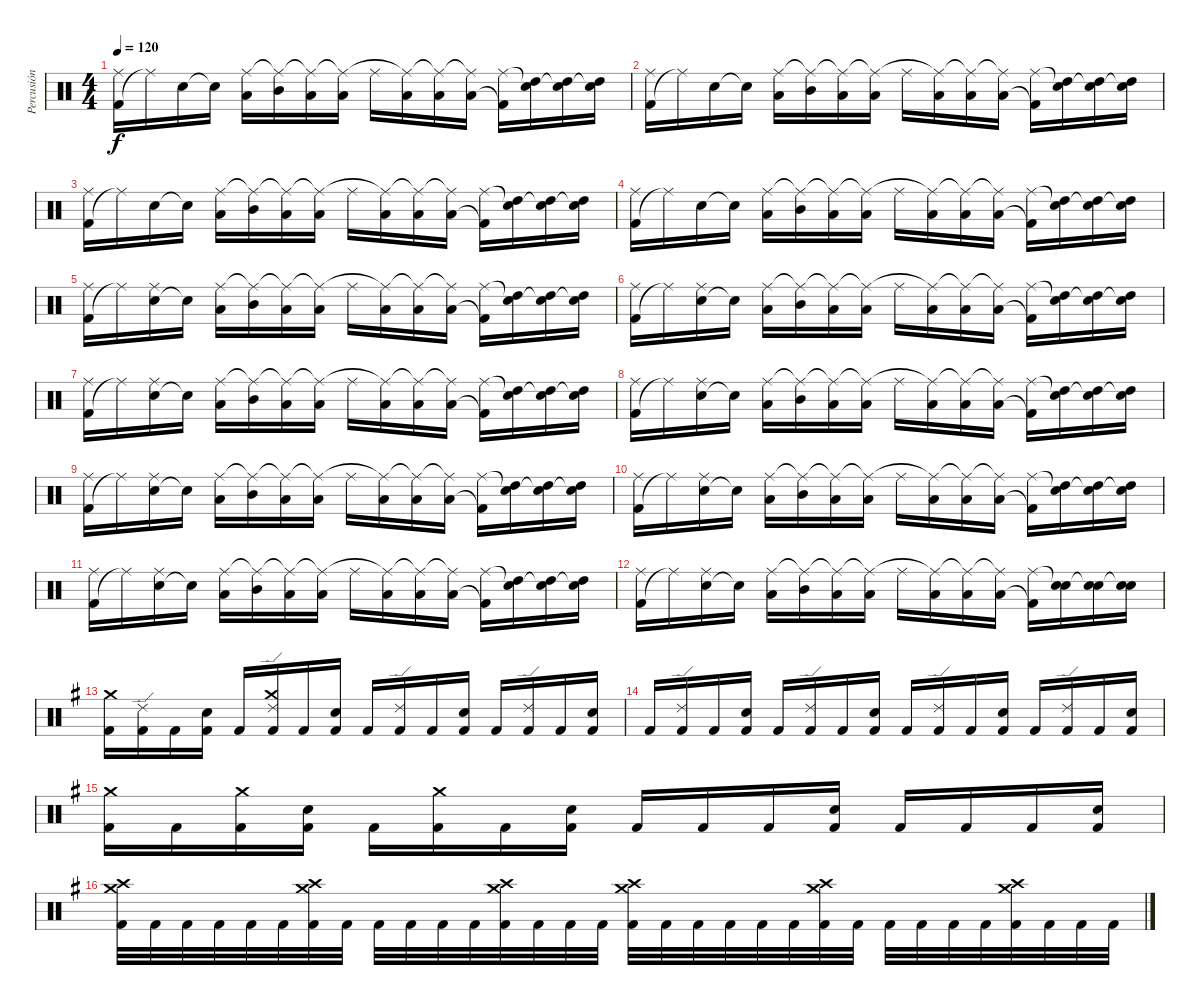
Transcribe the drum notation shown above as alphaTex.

\track ("Percusión" "Percusión") {instrument percussion}
\staff {score}
\articulation defaults
\ts (4 4)
\tempo 120
\clef neutral
\ks c
("Kick (hit) 2" "Ride (middle)").16{dy f} "Ride (middle)"{t}.16 "Snare (hit) 2".16 "Snare (hit)"{t}.16 ("Low Tom (hit)" "Ride (middle)").16 ("Mid Tom (hit)" "Ride (middle)"{t}).16 ("Low Tom (hit)" "Ride (middle)"{t}).16 ("Low Tom (hit)" "Ride (middle)"{t}).16 "Ride (middle)".16 ("Low Tom (hit)" "Ride (middle)"{t}).16 ("Low Tom (hit)" "Ride (middle)"{t}).16 ("Low Tom (hit)" "Ride (middle)"{t}).16 ("Kick (hit) 2"{t} "Ride (middle)").16 ("High Tom (hit)" "Snare (hit)"{t}).16 ("High Tom (hit)" "Snare (hit)"{t}).16 ("High Tom (hit)" "Snare (hit)"{t}).16 |
("Kick (hit) 2" "Ride (middle)").16 "Ride (middle)"{t}.16 "Snare (hit) 2".16 "Snare (hit)"{t}.16 ("Low Tom (hit)" "Ride (middle)").16 ("Mid Tom (hit)" "Ride (middle)"{t}).16 ("Low Tom (hit)" "Ride (middle)"{t}).16 ("Low Tom (hit)" "Ride (middle)"{t}).16 "Ride (middle)".16 ("Low Tom (hit)" "Ride (middle)"{t}).16 ("Low Tom (hit)" "Ride (middle)"{t}).16 ("Low Tom (hit)" "Ride (middle)"{t}).16 ("Kick (hit) 2"{t} "Ride (middle)").16 ("High Tom (hit)" "Snare (hit)"{t}).16 ("High Tom (hit)" "Snare (hit)"{t}).16 ("High Tom (hit)" "Snare (hit)"{t}).16 |
("Kick (hit) 2" "Ride (middle)").16 "Ride (middle)"{t}.16 "Snare (hit) 2".16 "Snare (hit)"{t}.16 ("Low Tom (hit)" "Ride (middle)").16 ("Mid Tom (hit)" "Ride (middle)"{t}).16 ("Low Tom (hit)" "Ride (middle)"{t}).16 ("Low Tom (hit)" "Ride (middle)"{t}).16 "Ride (middle)".16 ("Low Tom (hit)" "Ride (middle)"{t}).16 ("Low Tom (hit)" "Ride (middle)"{t}).16 ("Low Tom (hit)" "Ride (middle)"{t}).16 ("Kick (hit) 2"{t} "Ride (middle)").16 ("High Tom (hit)" "Snare (hit)"{t}).16 ("High Tom (hit)" "Snare (hit)"{t}).16 ("High Tom (hit)" "Snare (hit)"{t}).16 |
("Kick (hit) 2" "Ride (middle)").16 "Ride (middle)"{t}.16 "Snare (hit) 2".16 "Snare (hit)"{t}.16 ("Low Tom (hit)" "Ride (middle)").16 ("Mid Tom (hit)" "Ride (middle)"{t}).16 ("Low Tom (hit)" "Ride (middle)"{t}).16 ("Low Tom (hit)" "Ride (middle)"{t}).16 "Ride (middle)".16 ("Low Tom (hit)" "Ride (middle)"{t}).16 ("Low Tom (hit)" "Ride (middle)"{t}).16 ("Low Tom (hit)" "Ride (middle)"{t}).16 ("Kick (hit) 2"{t} "Ride (middle)").16 ("High Tom (hit)" "Snare (hit)"{t}).16 ("High Tom (hit)" "Snare (hit)"{t}).16 ("High Tom (hit)" "Snare (hit)"{t}).16 |
("Kick (hit) 2" "Ride (middle)").16 "Ride (middle)"{t}.16 ("Snare (hit) 2" "Ride (middle)").16 "Snare (hit)"{t}.16 ("Low Tom (hit)" "Ride (middle)").16 ("Mid Tom (hit)" "Ride (middle)"{t}).16 ("Low Tom (hit)" "Ride (middle)"{t}).16 ("Low Tom (hit)" "Ride (middle)"{t}).16 "Ride (middle)".16 ("Low Tom (hit)" "Ride (middle)"{t}).16 ("Low Tom (hit)" "Ride (middle)"{t}).16 ("Low Tom (hit)" "Ride (middle)"{t}).16 ("Kick (hit) 2"{t} "Ride (middle)").16 ("High Tom (hit)" "Snare (hit)"{t}).16 ("High Tom (hit)" "Snare (hit)"{t}).16 ("High Tom (hit)" "Snare (hit)"{t}).16 |
("Kick (hit) 2" "Ride (middle)").16 "Ride (middle)"{t}.16 ("Snare (hit) 2" "Ride (middle)").16 "Snare (hit)"{t}.16 ("Low Tom (hit)" "Ride (middle)").16 ("Mid Tom (hit)" "Ride (middle)"{t}).16 ("Low Tom (hit)" "Ride (middle)"{t}).16 ("Low Tom (hit)" "Ride (middle)"{t}).16 "Ride (middle)".16 ("Low Tom (hit)" "Ride (middle)"{t}).16 ("Low Tom (hit)" "Ride (middle)"{t}).16 ("Low Tom (hit)" "Ride (middle)"{t}).16 ("Kick (hit) 2"{t} "Ride (middle)").16 ("High Tom (hit)" "Snare (hit)"{t}).16 ("High Tom (hit)" "Snare (hit)"{t}).16 ("High Tom (hit)" "Snare (hit)"{t}).16 |
("Kick (hit) 2" "Ride (middle)").16 "Ride (middle)"{t}.16 ("Snare (hit) 2" "Ride (middle)").16 "Snare (hit)"{t}.16 ("Low Tom (hit)" "Ride (middle)").16 ("Mid Tom (hit)" "Ride (middle)"{t}).16 ("Low Tom (hit)" "Ride (middle)"{t}).16 ("Low Tom (hit)" "Ride (middle)"{t}).16 "Ride (middle)".16 ("Low Tom (hit)" "Ride (middle)"{t}).16 ("Low Tom (hit)" "Ride (middle)"{t}).16 ("Low Tom (hit)" "Ride (middle)"{t}).16 ("Kick (hit) 2"{t} "Ride (middle)").16 ("High Tom (hit)" "Snare (hit)"{t}).16 ("High Tom (hit)" "Snare (hit)"{t}).16 ("High Tom (hit)" "Snare (hit)"{t}).16 |
("Kick (hit) 2" "Ride (middle)").16 "Ride (middle)"{t}.16 ("Snare (hit) 2" "Ride (middle)").16 "Snare (hit)"{t}.16 ("Low Tom (hit)" "Ride (middle)").16 ("Mid Tom (hit)" "Ride (middle)"{t}).16 ("Low Tom (hit)" "Ride (middle)"{t}).16 ("Low Tom (hit)" "Ride (middle)"{t}).16 "Ride (middle)".16 ("Low Tom (hit)" "Ride (middle)"{t}).16 ("Low Tom (hit)" "Ride (middle)"{t}).16 ("Low Tom (hit)" "Ride (middle)"{t}).16 ("Kick (hit) 2"{t} "Ride (middle)").16 ("High Tom (hit)" "Snare (hit)"{t}).16 ("High Tom (hit)" "Snare (hit)"{t}).16 ("High Tom (hit)" "Snare (hit)"{t}).16 |
("Kick (hit) 2" "Ride (middle)").16 "Ride (middle)"{t}.16 ("Snare (hit) 2" "Ride (middle)").16 "Snare (hit)"{t}.16 ("Low Tom (hit)" "Ride (middle)").16 ("Mid Tom (hit)" "Ride (middle)"{t}).16 ("Low Tom (hit)" "Ride (middle)"{t}).16 ("Low Tom (hit)" "Ride (middle)"{t}).16 "Ride (middle)".16 ("Low Tom (hit)" "Ride (middle)"{t}).16 ("Low Tom (hit)" "Ride (middle)"{t}).16 ("Low Tom (hit)" "Ride (middle)"{t}).16 ("Kick (hit) 2"{t} "Ride (middle)").16 ("High Tom (hit)" "Snare (hit)"{t}).16 ("High Tom (hit)" "Snare (hit)"{t}).16 ("High Tom (hit)" "Snare (hit)"{t}).16 |
("Kick (hit) 2" "Ride (middle)").16 "Ride (middle)"{t}.16 ("Snare (hit) 2" "Ride (middle)").16 "Snare (hit)"{t}.16 ("Low Tom (hit)" "Ride (middle)").16 ("Mid Tom (hit)" "Ride (middle)"{t}).16 ("Low Tom (hit)" "Ride (middle)"{t}).16 ("Low Tom (hit)" "Ride (middle)"{t}).16 "Ride (middle)".16 ("Low Tom (hit)" "Ride (middle)"{t}).16 ("Low Tom (hit)" "Ride (middle)"{t}).16 ("Low Tom (hit)" "Ride (middle)"{t}).16 ("Kick (hit) 2"{t} "Ride (middle)").16 ("High Tom (hit)" "Snare (hit)"{t}).16 ("High Tom (hit)" "Snare (hit)"{t}).16 ("High Tom (hit)" "Snare (hit)"{t}).16 |
("Kick (hit) 2" "Ride (middle)").16 "Ride (middle)"{t}.16 ("Snare (hit) 2" "Ride (middle)").16 "Snare (hit)"{t}.16 ("Low Tom (hit)" "Ride (middle)").16 ("Mid Tom (hit)" "Ride (middle)"{t}).16 ("Low Tom (hit)" "Ride (middle)"{t}).16 ("Low Tom (hit)" "Ride (middle)"{t}).16 "Ride (middle)".16 ("Low Tom (hit)" "Ride (middle)"{t}).16 ("Low Tom (hit)" "Ride (middle)"{t}).16 ("Low Tom (hit)" "Ride (middle)"{t}).16 ("Kick (hit) 2"{t} "Ride (middle)").16 ("High Tom (hit)" "Snare (hit)"{t}).16 ("High Tom (hit)" "Snare (hit)"{t}).16 ("High Tom (hit)" "Snare (hit)"{t}).16 |
("Kick (hit) 2" "Ride (middle)").16 "Ride (middle)"{t}.16 ("Snare (hit) 2" "Ride (middle)").16 "Snare (hit)"{t}.16 ("Low Tom (hit)" "Ride (middle)").16 ("Mid Tom (hit)" "Ride (middle)"{t}).16 ("Low Tom (hit)" "Ride (middle)"{t}).16 ("Low Tom (hit)" "Ride (middle)"{t}).16 "Ride (middle)".16 ("Low Tom (hit)" "Ride (middle)"{t}).16 ("Low Tom (hit)" "Ride (middle)"{t}).16 ("Low Tom (hit)" "Ride (middle)"{t}).16 ("Kick (hit) 2"{t} "Ride (middle)").16 ("Snare (hit) 2" "Snare (hit)"{t}).16 ("Snare (hit) 2" "Snare (hit)"{t}).16 ("Snare (hit) 2" "Snare (hit)"{t}).16 |
\ks g
("Kick (hit) 2" "Crash medium (hit)").16 ("Kick (hit) 2" "Ride (edge) 2").16 "Kick (hit) 2".16 ("Kick (hit) 2" "Snare (hit) 2").16 "Kick (hit) 2".16 ("Kick (hit) 2" "Crash medium (hit)" "Ride (edge) 2").16 "Kick (hit) 2".16 ("Kick (hit) 2" "Snare (hit) 2").16 "Kick (hit) 2".16 ("Kick (hit) 2" "Ride (edge) 2").16 "Kick (hit) 2".16 ("Kick (hit) 2" "Snare (hit) 2").16 "Kick (hit) 2".16 ("Kick (hit) 2" "Ride (edge) 2").16 "Kick (hit) 2".16 ("Kick (hit) 2" "Snare (hit) 2").16 |
"Kick (hit) 2".16 ("Kick (hit) 2" "Ride (edge) 2").16 "Kick (hit) 2".16 ("Kick (hit) 2" "Snare (hit) 2").16 "Kick (hit) 2".16 ("Kick (hit) 2" "Ride (edge) 2").16 "Kick (hit) 2".16 ("Kick (hit) 2" "Snare (hit) 2").16 "Kick (hit) 2".16 ("Kick (hit) 2" "Ride (edge) 2").16 "Kick (hit) 2".16 ("Kick (hit) 2" "Snare (hit) 2").16 "Kick (hit) 2".16 ("Kick (hit) 2" "Ride (edge) 2").16 "Kick (hit) 2".16 ("Kick (hit) 2" "Snare (hit) 2").16 |
("Kick (hit) 2" "Crash medium (hit)").16 "Kick (hit) 2".16 ("Kick (hit) 2" "Crash medium (hit)").16 ("Kick (hit) 2" "Snare (hit) 2").16 "Kick (hit) 2".16 ("Kick (hit) 2" "Crash medium (hit)").16 "Kick (hit) 2".16 ("Kick (hit) 2" "Snare (hit) 2").16 "Kick (hit) 2".16 "Kick (hit) 2".16 "Kick (hit) 2".16 ("Kick (hit) 2" "Snare (hit) 2").16 "Kick (hit) 2".16 "Kick (hit) 2".16 "Kick (hit) 2".16 ("Kick (hit) 2" "Snare (hit) 2").16 |
("Kick (hit) 2" "Crash medium (hit)" "Crash high (hit)").32 "Kick (hit) 2".32 "Kick (hit) 2".32 "Kick (hit) 2".32 "Kick (hit) 2".32 "Kick (hit) 2".32 ("Kick (hit) 2" "Crash medium (hit)" "Crash high (hit)").32 "Kick (hit) 2".32 "Kick (hit) 2".32 "Kick (hit) 2".32 "Kick (hit) 2".32 "Kick (hit) 2".32 ("Kick (hit) 2" "Crash medium (hit)" "Crash high (hit)").32 "Kick (hit) 2".32 "Kick (hit) 2".32 "Kick (hit) 2".32 ("Kick (hit) 2" "Crash medium (hit)" "Crash high (hit)").32 "Kick (hit) 2".32 "Kick (hit) 2".32 "Kick (hit) 2".32 "Kick (hit) 2".32 "Kick (hit) 2".32 ("Kick (hit) 2" "Crash medium (hit)" "Crash high (hit)").32 "Kick (hit) 2".32 "Kick (hit) 2".32 "Kick (hit) 2".32 "Kick (hit) 2".32 "Kick (hit) 2".32 ("Kick (hit) 2" "Crash medium (hit)" "Crash high (hit)").32 "Kick (hit) 2".32 "Kick (hit) 2".32 "Kick (hit) 2".32
